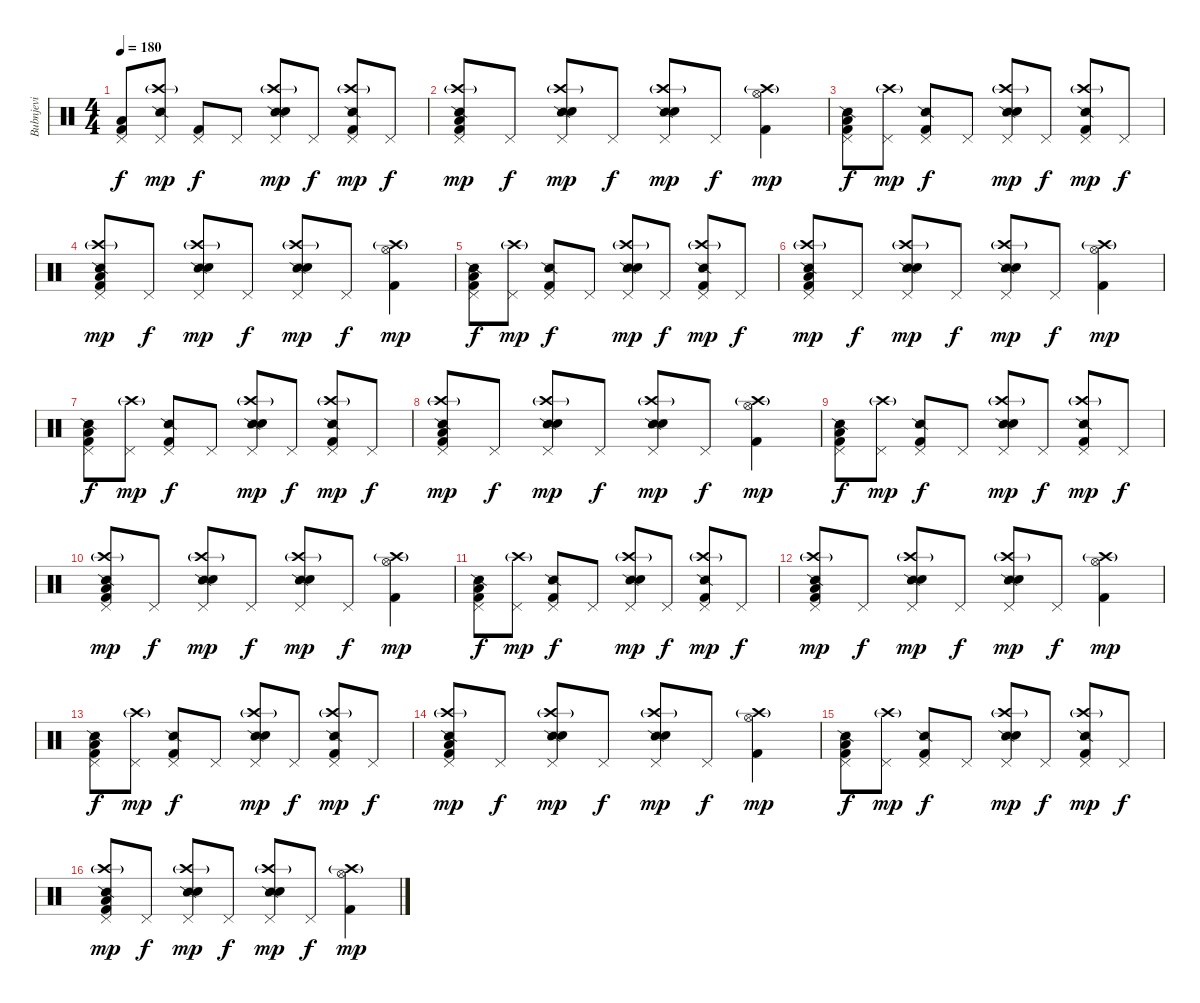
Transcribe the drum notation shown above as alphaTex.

\track ("Bubnjevi" "Bubnjevi") {instrument percussion}
\staff {score}
\articulation defaults
\ts (4 4)
\tempo 180
\clef neutral
\ks c
("Pedal Hi-Hat (hit)" "Low Tom (hit)" "Kick (hit) 2").8{dy f} ("Crash high (hit)"{g} "Snare (side stick) 2" "Pedal Hi-Hat (hit)").8{dy mp} ("Pedal Hi-Hat (hit)" "Kick (hit) 2").8{dy f} "Pedal Hi-Hat (hit)".8 ("Crash high (hit)"{g} "Snare (side stick) 2" "Pedal Hi-Hat (hit)" "Electric Snare (hit)").8{dy mp} "Pedal Hi-Hat (hit)".8{dy f} ("Crash high (hit)"{g} "Snare (side stick) 2" "Pedal Hi-Hat (hit)" "Kick (hit) 2").8{dy mp} "Pedal Hi-Hat (hit)".8{dy f} |
("Crash high (hit)"{g} "Snare (side stick) 2" "Pedal Hi-Hat (hit)" "Low Tom (hit)" "Kick (hit) 2").8{dy mp} "Pedal Hi-Hat (hit)".8{dy f} ("Crash high (hit)"{g} "Snare (side stick) 2" "Pedal Hi-Hat (hit)" "Hand Clap (hit)").8{dy mp} "Pedal Hi-Hat (hit)".8{dy f} ("Crash high (hit)"{g} "Snare (side stick) 2" "Pedal Hi-Hat (hit)" "Electric Snare (hit)").8{dy mp} "Pedal Hi-Hat (hit)".8{dy f} ("Crash high (hit)"{g} "Hi-Hat (open)" "Kick (hit) 2").4{dy mp} |
("Snare (side stick) 2" "Pedal Hi-Hat (hit)" "Low Tom (hit)" "Kick (hit) 2").8{dy f} ("Crash high (hit)"{g} "Pedal Hi-Hat (hit)").8{dy mp} ("Snare (side stick) 2" "Pedal Hi-Hat (hit)" "Kick (hit) 2").8{dy f} "Pedal Hi-Hat (hit)".8 ("Crash high (hit)"{g} "Snare (side stick) 2" "Pedal Hi-Hat (hit)" "Electric Snare (hit)").8{dy mp} "Pedal Hi-Hat (hit)".8{dy f} ("Crash high (hit)"{g} "Snare (side stick) 2" "Pedal Hi-Hat (hit)" "Kick (hit) 2").8{dy mp} "Pedal Hi-Hat (hit)".8{dy f} |
("Crash high (hit)"{g} "Snare (side stick) 2" "Pedal Hi-Hat (hit)" "Low Tom (hit)" "Kick (hit) 2").8{dy mp} "Pedal Hi-Hat (hit)".8{dy f} ("Crash high (hit)"{g} "Snare (side stick) 2" "Pedal Hi-Hat (hit)" "Hand Clap (hit)").8{dy mp} "Pedal Hi-Hat (hit)".8{dy f} ("Crash high (hit)"{g} "Snare (side stick) 2" "Pedal Hi-Hat (hit)" "Electric Snare (hit)").8{dy mp} "Pedal Hi-Hat (hit)".8{dy f} ("Crash high (hit)"{g} "Hi-Hat (open)" "Kick (hit) 2").4{dy mp} |
("Snare (side stick) 2" "Pedal Hi-Hat (hit)" "Low Tom (hit)" "Kick (hit) 2").8{dy f} ("Crash high (hit)"{g} "Pedal Hi-Hat (hit)").8{dy mp} ("Snare (side stick) 2" "Pedal Hi-Hat (hit)" "Kick (hit) 2").8{dy f} "Pedal Hi-Hat (hit)".8 ("Crash high (hit)"{g} "Snare (side stick) 2" "Pedal Hi-Hat (hit)" "Electric Snare (hit)").8{dy mp} "Pedal Hi-Hat (hit)".8{dy f} ("Crash high (hit)"{g} "Snare (side stick) 2" "Pedal Hi-Hat (hit)" "Kick (hit) 2").8{dy mp} "Pedal Hi-Hat (hit)".8{dy f} |
("Crash high (hit)"{g} "Snare (side stick) 2" "Pedal Hi-Hat (hit)" "Low Tom (hit)" "Kick (hit) 2").8{dy mp} "Pedal Hi-Hat (hit)".8{dy f} ("Crash high (hit)"{g} "Snare (side stick) 2" "Pedal Hi-Hat (hit)" "Hand Clap (hit)").8{dy mp} "Pedal Hi-Hat (hit)".8{dy f} ("Crash high (hit)"{g} "Snare (side stick) 2" "Pedal Hi-Hat (hit)" "Electric Snare (hit)").8{dy mp} "Pedal Hi-Hat (hit)".8{dy f} ("Crash high (hit)"{g} "Hi-Hat (open)" "Kick (hit) 2").4{dy mp} |
("Snare (side stick) 2" "Pedal Hi-Hat (hit)" "Low Tom (hit)" "Kick (hit) 2").8{dy f} ("Crash high (hit)"{g} "Pedal Hi-Hat (hit)").8{dy mp} ("Snare (side stick) 2" "Pedal Hi-Hat (hit)" "Kick (hit) 2").8{dy f} "Pedal Hi-Hat (hit)".8 ("Crash high (hit)"{g} "Snare (side stick) 2" "Pedal Hi-Hat (hit)" "Electric Snare (hit)").8{dy mp} "Pedal Hi-Hat (hit)".8{dy f} ("Crash high (hit)"{g} "Snare (side stick) 2" "Pedal Hi-Hat (hit)" "Kick (hit) 2").8{dy mp} "Pedal Hi-Hat (hit)".8{dy f} |
("Crash high (hit)"{g} "Snare (side stick) 2" "Pedal Hi-Hat (hit)" "Low Tom (hit)" "Kick (hit) 2").8{dy mp} "Pedal Hi-Hat (hit)".8{dy f} ("Crash high (hit)"{g} "Snare (side stick) 2" "Pedal Hi-Hat (hit)" "Hand Clap (hit)").8{dy mp} "Pedal Hi-Hat (hit)".8{dy f} ("Crash high (hit)"{g} "Snare (side stick) 2" "Pedal Hi-Hat (hit)" "Electric Snare (hit)").8{dy mp} "Pedal Hi-Hat (hit)".8{dy f} ("Crash high (hit)"{g} "Hi-Hat (open)" "Kick (hit) 2").4{dy mp} |
("Snare (side stick) 2" "Pedal Hi-Hat (hit)" "Low Tom (hit)" "Kick (hit) 2").8{dy f} ("Crash high (hit)"{g} "Pedal Hi-Hat (hit)").8{dy mp} ("Snare (side stick) 2" "Pedal Hi-Hat (hit)" "Kick (hit) 2").8{dy f} "Pedal Hi-Hat (hit)".8 ("Crash high (hit)"{g} "Snare (side stick) 2" "Pedal Hi-Hat (hit)" "Electric Snare (hit)").8{dy mp} "Pedal Hi-Hat (hit)".8{dy f} ("Crash high (hit)"{g} "Snare (side stick) 2" "Pedal Hi-Hat (hit)" "Kick (hit) 2").8{dy mp} "Pedal Hi-Hat (hit)".8{dy f} |
("Crash high (hit)"{g} "Snare (side stick) 2" "Pedal Hi-Hat (hit)" "Low Tom (hit)" "Kick (hit) 2").8{dy mp} "Pedal Hi-Hat (hit)".8{dy f} ("Crash high (hit)"{g} "Snare (side stick) 2" "Pedal Hi-Hat (hit)" "Hand Clap (hit)").8{dy mp} "Pedal Hi-Hat (hit)".8{dy f} ("Crash high (hit)"{g} "Snare (side stick) 2" "Pedal Hi-Hat (hit)" "Electric Snare (hit)").8{dy mp} "Pedal Hi-Hat (hit)".8{dy f} ("Crash high (hit)"{g} "Hi-Hat (open)" "Kick (hit) 2").4{dy mp} |
("Snare (side stick) 2" "Pedal Hi-Hat (hit)" "Low Tom (hit)" "Kick (hit) 2").8{dy f} ("Crash high (hit)"{g} "Pedal Hi-Hat (hit)").8{dy mp} ("Snare (side stick) 2" "Pedal Hi-Hat (hit)" "Kick (hit) 2").8{dy f} "Pedal Hi-Hat (hit)".8 ("Crash high (hit)"{g} "Snare (side stick) 2" "Pedal Hi-Hat (hit)" "Electric Snare (hit)").8{dy mp} "Pedal Hi-Hat (hit)".8{dy f} ("Crash high (hit)"{g} "Snare (side stick) 2" "Pedal Hi-Hat (hit)" "Kick (hit) 2").8{dy mp} "Pedal Hi-Hat (hit)".8{dy f} |
("Crash high (hit)"{g} "Snare (side stick) 2" "Pedal Hi-Hat (hit)" "Low Tom (hit)" "Kick (hit) 2").8{dy mp} "Pedal Hi-Hat (hit)".8{dy f} ("Crash high (hit)"{g} "Snare (side stick) 2" "Pedal Hi-Hat (hit)" "Hand Clap (hit)").8{dy mp} "Pedal Hi-Hat (hit)".8{dy f} ("Crash high (hit)"{g} "Snare (side stick) 2" "Pedal Hi-Hat (hit)" "Electric Snare (hit)").8{dy mp} "Pedal Hi-Hat (hit)".8{dy f} ("Crash high (hit)"{g} "Hi-Hat (open)" "Kick (hit) 2").4{dy mp} |
("Snare (side stick) 2" "Pedal Hi-Hat (hit)" "Low Tom (hit)" "Kick (hit) 2").8{dy f} ("Crash high (hit)"{g} "Pedal Hi-Hat (hit)").8{dy mp} ("Snare (side stick) 2" "Pedal Hi-Hat (hit)" "Kick (hit) 2").8{dy f} "Pedal Hi-Hat (hit)".8 ("Crash high (hit)"{g} "Snare (side stick) 2" "Pedal Hi-Hat (hit)" "Electric Snare (hit)").8{dy mp} "Pedal Hi-Hat (hit)".8{dy f} ("Crash high (hit)"{g} "Snare (side stick) 2" "Pedal Hi-Hat (hit)" "Kick (hit) 2").8{dy mp} "Pedal Hi-Hat (hit)".8{dy f} |
("Crash high (hit)"{g} "Snare (side stick) 2" "Pedal Hi-Hat (hit)" "Low Tom (hit)" "Kick (hit) 2").8{dy mp} "Pedal Hi-Hat (hit)".8{dy f} ("Crash high (hit)"{g} "Snare (side stick) 2" "Pedal Hi-Hat (hit)" "Hand Clap (hit)").8{dy mp} "Pedal Hi-Hat (hit)".8{dy f} ("Crash high (hit)"{g} "Snare (side stick) 2" "Pedal Hi-Hat (hit)" "Electric Snare (hit)").8{dy mp} "Pedal Hi-Hat (hit)".8{dy f} ("Crash high (hit)"{g} "Hi-Hat (open)" "Kick (hit) 2").4{dy mp} |
("Snare (side stick) 2" "Pedal Hi-Hat (hit)" "Low Tom (hit)" "Kick (hit) 2").8{dy f} ("Crash high (hit)"{g} "Pedal Hi-Hat (hit)").8{dy mp} ("Snare (side stick) 2" "Pedal Hi-Hat (hit)" "Kick (hit) 2").8{dy f} "Pedal Hi-Hat (hit)".8 ("Crash high (hit)"{g} "Snare (side stick) 2" "Pedal Hi-Hat (hit)" "Electric Snare (hit)").8{dy mp} "Pedal Hi-Hat (hit)".8{dy f} ("Crash high (hit)"{g} "Snare (side stick) 2" "Pedal Hi-Hat (hit)" "Kick (hit) 2").8{dy mp} "Pedal Hi-Hat (hit)".8{dy f} |
("Crash high (hit)"{g} "Snare (side stick) 2" "Pedal Hi-Hat (hit)" "Low Tom (hit)" "Kick (hit) 2").8{dy mp} "Pedal Hi-Hat (hit)".8{dy f} ("Crash high (hit)"{g} "Snare (side stick) 2" "Pedal Hi-Hat (hit)" "Hand Clap (hit)").8{dy mp} "Pedal Hi-Hat (hit)".8{dy f} ("Crash high (hit)"{g} "Snare (side stick) 2" "Pedal Hi-Hat (hit)" "Electric Snare (hit)").8{dy mp} "Pedal Hi-Hat (hit)".8{dy f} ("Crash high (hit)"{g} "Hi-Hat (open)" "Kick (hit) 2").4{dy mp}
